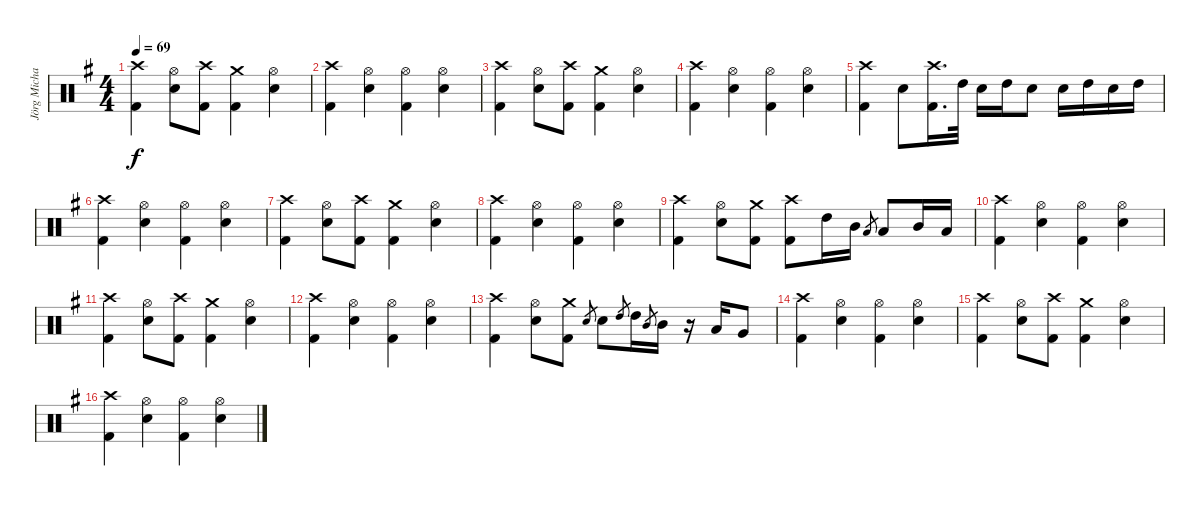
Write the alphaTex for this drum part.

\track ("Jörg Michael" "Jörg Micha") {instrument percussion}
\staff {score}
\articulation defaults
\ts (4 4)
\tempo 69
\clef neutral
\ks g
("Crash high (hit)" "Kick (hit) 2").4{dy f} ("Electric Snare (hit)" "Hi-Hat (open)").8 ("Crash high (hit)" "Kick (hit) 2").8 ("Crash medium (hit)" "Kick (hit) 2").4 ("Hi-Hat (open)" "Electric Snare (hit)").4 |
("Crash high (hit)" "Kick (hit) 2").4 ("Hi-Hat (open)" "Electric Snare (hit)").4 ("Hi-Hat (open)" "Kick (hit) 2").4 ("Hi-Hat (open)" "Electric Snare (hit)").4 |
("Crash high (hit)" "Kick (hit) 2").4 ("Electric Snare (hit)" "Hi-Hat (open)").8 ("Crash high (hit)" "Kick (hit) 2").8 ("Crash medium (hit)" "Kick (hit) 2").4 ("Hi-Hat (open)" "Electric Snare (hit)").4 |
("Crash high (hit)" "Kick (hit) 2").4 ("Hi-Hat (open)" "Electric Snare (hit)").4 ("Hi-Hat (open)" "Kick (hit) 2").4 ("Hi-Hat (open)" "Electric Snare (hit)").4 |
("Crash high (hit)" "Kick (hit) 2").4 "Electric Snare (hit)".8 ("Crash high (hit)" "Kick (hit) 2").16{d} "High Tom (hit)".32 "Electric Snare (hit)".16 "High Tom (hit)".16 "Electric Snare (hit)".8 "Electric Snare (hit)".16 "High Tom (hit)".16 "Electric Snare (hit)".16 "High Tom (hit)".16 |
("Crash high (hit)" "Kick (hit) 2").4 ("Hi-Hat (open)" "Electric Snare (hit)").4 ("Hi-Hat (open)" "Kick (hit) 2").4 ("Hi-Hat (open)" "Electric Snare (hit)").4 |
("Crash high (hit)" "Kick (hit) 2").4 ("Electric Snare (hit)" "Hi-Hat (open)").8 ("Crash high (hit)" "Kick (hit) 2").8 ("Crash medium (hit)" "Kick (hit) 2").4 ("Hi-Hat (open)" "Electric Snare (hit)").4 |
("Crash high (hit)" "Kick (hit) 2").4 ("Hi-Hat (open)" "Electric Snare (hit)").4 ("Hi-Hat (open)" "Kick (hit) 2").4 ("Hi-Hat (open)" "Electric Snare (hit)").4 |
("Kick (hit) 2" "Crash high (hit)").4 ("Hi-Hat (open)" "Electric Snare (hit)").8 ("Crash medium (hit)" "Kick (hit) 2").8 ("Crash high (hit)" "Kick (hit) 2").8 "High Tom (hit)".16 "Mid Tom (hit)".16 "Low Tom (hit)".8{gr} "Low Tom (hit)".8 "Mid Tom (hit)".16 "Low Tom (hit)".16 |
("Crash high (hit)" "Kick (hit) 2").4 ("Hi-Hat (open)" "Electric Snare (hit)").4 ("Hi-Hat (open)" "Kick (hit) 2").4 ("Hi-Hat (open)" "Electric Snare (hit)").4 |
("Crash high (hit)" "Kick (hit) 2").4 ("Electric Snare (hit)" "Hi-Hat (open)").8 ("Crash high (hit)" "Kick (hit) 2").8 ("Crash medium (hit)" "Kick (hit) 2").4 ("Hi-Hat (open)" "Electric Snare (hit)").4 |
("Crash high (hit)" "Kick (hit) 2").4 ("Hi-Hat (open)" "Electric Snare (hit)").4 ("Hi-Hat (open)" "Kick (hit) 2").4 ("Hi-Hat (open)" "Electric Snare (hit)").4 |
("Kick (hit) 2" "Crash high (hit)").4 ("Hi-Hat (open)" "Electric Snare (hit)").8 ("Crash medium (hit)" "Kick (hit) 2").8 "Electric Snare (hit)".8{gr} "Electric Snare (hit)".8 "High Tom (hit)".8{gr} "High Tom (hit)".16 "Mid Tom (hit)".8{gr} "Mid Tom (hit)".16 r.16 "Low Tom (hit)".16 "Very Low Tom (hit)".8 |
("Crash high (hit)" "Kick (hit) 2").4 ("Hi-Hat (open)" "Electric Snare (hit)").4 ("Hi-Hat (open)" "Kick (hit) 2").4 ("Hi-Hat (open)" "Electric Snare (hit)").4 |
("Crash high (hit)" "Kick (hit) 2").4 ("Electric Snare (hit)" "Hi-Hat (open)").8 ("Crash high (hit)" "Kick (hit) 2").8 ("Crash medium (hit)" "Kick (hit) 2").4 ("Hi-Hat (open)" "Electric Snare (hit)").4 |
("Crash high (hit)" "Kick (hit) 2").4 ("Hi-Hat (open)" "Electric Snare (hit)").4 ("Hi-Hat (open)" "Kick (hit) 2").4 ("Hi-Hat (open)" "Electric Snare (hit)").4
